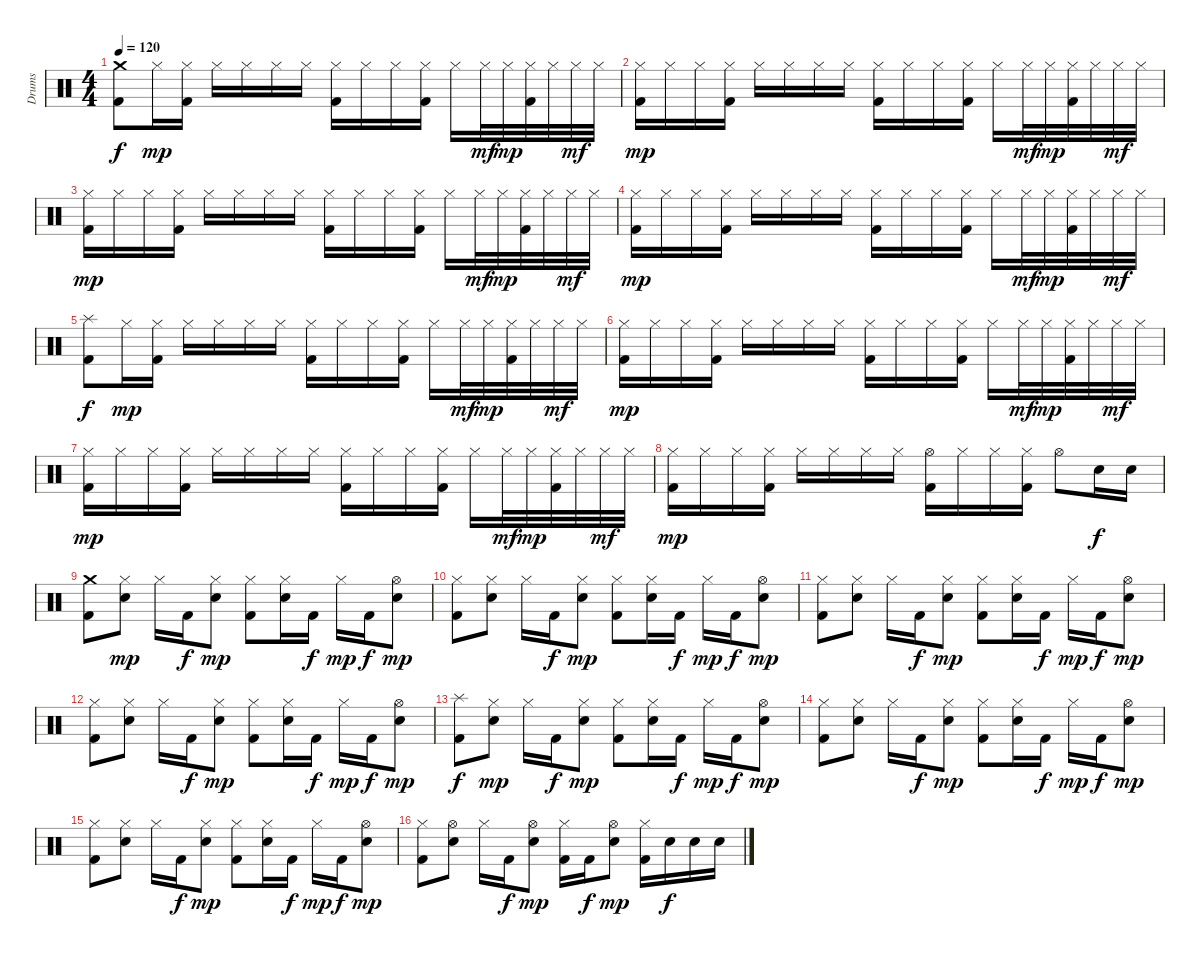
\track ("Drums" "Drums") {instrument percussion}
\staff {score}
\articulation defaults
\ts (4 4)
\tempo 120
\clef neutral
\ks c
("Crash medium (hit)" "Kick (hit) 2").8{dy f} "Hi-Hat (closed)".16{dy mp} ("Hi-Hat (closed)" "Kick (hit) 2").16 "Hi-Hat (closed)".16 "Hi-Hat (closed)".16 "Hi-Hat (closed)".16 "Hi-Hat (closed)".16 ("Hi-Hat (closed)" "Kick (hit) 2").16 "Hi-Hat (closed)".16 "Hi-Hat (closed)".16 ("Hi-Hat (closed)" "Kick (hit) 2").16 "Hi-Hat (closed)".16 "Hi-Hat (closed)".32{dy mf} "Hi-Hat (closed)".32{dy mp} ("Hi-Hat (closed)" "Kick (hit) 2").32 "Hi-Hat (closed)".32 "Hi-Hat (closed)".32{dy mf} "Hi-Hat (closed)".32 |
("Hi-Hat (closed)" "Kick (hit) 2").16{dy mp} "Hi-Hat (closed)".16 "Hi-Hat (closed)".16 ("Hi-Hat (closed)" "Kick (hit) 2").16 "Hi-Hat (closed)".16 "Hi-Hat (closed)".16 "Hi-Hat (closed)".16 "Hi-Hat (closed)".16 ("Hi-Hat (closed)" "Kick (hit) 2").16 "Hi-Hat (closed)".16 "Hi-Hat (closed)".16 ("Hi-Hat (closed)" "Kick (hit) 2").16 "Hi-Hat (closed)".16 "Hi-Hat (closed)".32{dy mf} "Hi-Hat (closed)".32{dy mp} ("Hi-Hat (closed)" "Kick (hit) 2").32 "Hi-Hat (closed)".32 "Hi-Hat (closed)".32{dy mf} "Hi-Hat (closed)".32 |
("Hi-Hat (closed)" "Kick (hit) 2").16{dy mp} "Hi-Hat (closed)".16 "Hi-Hat (closed)".16 ("Hi-Hat (closed)" "Kick (hit) 2").16 "Hi-Hat (closed)".16 "Hi-Hat (closed)".16 "Hi-Hat (closed)".16 "Hi-Hat (closed)".16 ("Hi-Hat (closed)" "Kick (hit) 2").16 "Hi-Hat (closed)".16 "Hi-Hat (closed)".16 ("Hi-Hat (closed)" "Kick (hit) 2").16 "Hi-Hat (closed)".16 "Hi-Hat (closed)".32{dy mf} "Hi-Hat (closed)".32{dy mp} ("Hi-Hat (closed)" "Kick (hit) 2").32 "Hi-Hat (closed)".32 "Hi-Hat (closed)".32{dy mf} "Hi-Hat (closed)".32 |
("Hi-Hat (closed)" "Kick (hit) 2").16{dy mp} "Hi-Hat (closed)".16 "Hi-Hat (closed)".16 ("Hi-Hat (closed)" "Kick (hit) 2").16 "Hi-Hat (closed)".16 "Hi-Hat (closed)".16 "Hi-Hat (closed)".16 "Hi-Hat (closed)".16 ("Hi-Hat (closed)" "Kick (hit) 2").16 "Hi-Hat (closed)".16 "Hi-Hat (closed)".16 ("Hi-Hat (closed)" "Kick (hit) 2").16 "Hi-Hat (closed)".16 "Hi-Hat (closed)".32{dy mf} "Hi-Hat (closed)".32{dy mp} ("Hi-Hat (closed)" "Kick (hit) 2").32 "Hi-Hat (closed)".32 "Hi-Hat (closed)".32{dy mf} "Hi-Hat (closed)".32 |
("Splash (hit)" "Kick (hit) 2").8{dy f} "Hi-Hat (closed)".16{dy mp} ("Hi-Hat (closed)" "Kick (hit) 2").16 "Hi-Hat (closed)".16 "Hi-Hat (closed)".16 "Hi-Hat (closed)".16 "Hi-Hat (closed)".16 ("Hi-Hat (closed)" "Kick (hit) 2").16 "Hi-Hat (closed)".16 "Hi-Hat (closed)".16 ("Hi-Hat (closed)" "Kick (hit) 2").16 "Hi-Hat (closed)".16 "Hi-Hat (closed)".32{dy mf} "Hi-Hat (closed)".32{dy mp} ("Hi-Hat (closed)" "Kick (hit) 2").32 "Hi-Hat (closed)".32 "Hi-Hat (closed)".32{dy mf} "Hi-Hat (closed)".32 |
("Hi-Hat (closed)" "Kick (hit) 2").16{dy mp} "Hi-Hat (closed)".16 "Hi-Hat (closed)".16 ("Hi-Hat (closed)" "Kick (hit) 2").16 "Hi-Hat (closed)".16 "Hi-Hat (closed)".16 "Hi-Hat (closed)".16 "Hi-Hat (closed)".16 ("Hi-Hat (closed)" "Kick (hit) 2").16 "Hi-Hat (closed)".16 "Hi-Hat (closed)".16 ("Hi-Hat (closed)" "Kick (hit) 2").16 "Hi-Hat (closed)".16 "Hi-Hat (closed)".32{dy mf} "Hi-Hat (closed)".32{dy mp} ("Hi-Hat (closed)" "Kick (hit) 2").32 "Hi-Hat (closed)".32 "Hi-Hat (closed)".32{dy mf} "Hi-Hat (closed)".32 |
("Hi-Hat (closed)" "Kick (hit) 2").16{dy mp} "Hi-Hat (closed)".16 "Hi-Hat (closed)".16 ("Hi-Hat (closed)" "Kick (hit) 2").16 "Hi-Hat (closed)".16 "Hi-Hat (closed)".16 "Hi-Hat (closed)".16 "Hi-Hat (closed)".16 ("Hi-Hat (closed)" "Kick (hit) 2").16 "Hi-Hat (closed)".16 "Hi-Hat (closed)".16 ("Hi-Hat (closed)" "Kick (hit) 2").16 "Hi-Hat (closed)".16 "Hi-Hat (closed)".32{dy mf} "Hi-Hat (closed)".32{dy mp} ("Hi-Hat (closed)" "Kick (hit) 2").32 "Hi-Hat (closed)".32 "Hi-Hat (closed)".32{dy mf} "Hi-Hat (closed)".32 |
("Hi-Hat (closed)" "Kick (hit) 2").16{dy mp} "Hi-Hat (closed)".16 "Hi-Hat (closed)".16 ("Hi-Hat (closed)" "Kick (hit) 2").16 "Hi-Hat (closed)".16 "Hi-Hat (closed)".16 "Hi-Hat (closed)".16 "Hi-Hat (closed)".16 ("Hi-Hat (open)" "Kick (hit) 2").16 "Hi-Hat (closed)".16 "Hi-Hat (closed)".16 ("Hi-Hat (closed)" "Kick (hit) 2").16 "Hi-Hat (open)".8 "Snare (hit) 2".16{dy f} "Snare (hit) 2".16 |
("Crash medium (hit)" "Kick (hit) 2").8 ("Hi-Hat (closed)" "Snare (hit) 2").8{dy mp} "Hi-Hat (closed)".16 "Kick (hit) 2".16{dy f} ("Hi-Hat (closed)" "Snare (hit) 2").8{dy mp} ("Hi-Hat (closed)" "Kick (hit) 2").8 ("Hi-Hat (closed)" "Snare (hit) 2").16 "Kick (hit) 2".16{dy f} "Hi-Hat (closed)".16{dy mp} "Kick (hit) 2".16{dy f} ("Hi-Hat (open)" "Snare (hit) 2").8{dy mp} |
("Hi-Hat (closed)" "Kick (hit) 2").8 ("Hi-Hat (closed)" "Snare (hit) 2").8 "Hi-Hat (closed)".16 "Kick (hit) 2".16{dy f} ("Hi-Hat (closed)" "Snare (hit) 2").8{dy mp} ("Hi-Hat (closed)" "Kick (hit) 2").8 ("Hi-Hat (closed)" "Snare (hit) 2").16 "Kick (hit) 2".16{dy f} "Hi-Hat (closed)".16{dy mp} "Kick (hit) 2".16{dy f} ("Hi-Hat (open)" "Snare (hit) 2").8{dy mp} |
("Hi-Hat (closed)" "Kick (hit) 2").8 ("Hi-Hat (closed)" "Snare (hit) 2").8 "Hi-Hat (closed)".16 "Kick (hit) 2".16{dy f} ("Hi-Hat (closed)" "Snare (hit) 2").8{dy mp} ("Hi-Hat (closed)" "Kick (hit) 2").8 ("Hi-Hat (closed)" "Snare (hit) 2").16 "Kick (hit) 2".16{dy f} "Hi-Hat (closed)".16{dy mp} "Kick (hit) 2".16{dy f} ("Hi-Hat (open)" "Snare (hit) 2").8{dy mp} |
("Hi-Hat (closed)" "Kick (hit) 2").8 ("Hi-Hat (closed)" "Snare (hit) 2").8 "Hi-Hat (closed)".16 "Kick (hit) 2".16{dy f} ("Hi-Hat (closed)" "Snare (hit) 2").8{dy mp} ("Hi-Hat (closed)" "Kick (hit) 2").8 ("Hi-Hat (closed)" "Snare (hit) 2").16 "Kick (hit) 2".16{dy f} "Hi-Hat (closed)".16{dy mp} "Kick (hit) 2".16{dy f} ("Hi-Hat (open)" "Snare (hit) 2").8{dy mp} |
("Splash (hit)" "Kick (hit) 2").8{dy f} ("Hi-Hat (closed)" "Snare (hit) 2").8{dy mp} "Hi-Hat (closed)".16 "Kick (hit) 2".16{dy f} ("Hi-Hat (closed)" "Snare (hit) 2").8{dy mp} ("Hi-Hat (closed)" "Kick (hit) 2").8 ("Hi-Hat (closed)" "Snare (hit) 2").16 "Kick (hit) 2".16{dy f} "Hi-Hat (closed)".16{dy mp} "Kick (hit) 2".16{dy f} ("Hi-Hat (open)" "Snare (hit) 2").8{dy mp} |
("Hi-Hat (closed)" "Kick (hit) 2").8 ("Hi-Hat (closed)" "Snare (hit) 2").8 "Hi-Hat (closed)".16 "Kick (hit) 2".16{dy f} ("Hi-Hat (closed)" "Snare (hit) 2").8{dy mp} ("Hi-Hat (closed)" "Kick (hit) 2").8 ("Hi-Hat (closed)" "Snare (hit) 2").16 "Kick (hit) 2".16{dy f} "Hi-Hat (closed)".16{dy mp} "Kick (hit) 2".16{dy f} ("Hi-Hat (open)" "Snare (hit) 2").8{dy mp} |
("Hi-Hat (closed)" "Kick (hit) 2").8 ("Hi-Hat (closed)" "Snare (hit) 2").8 "Hi-Hat (closed)".16 "Kick (hit) 2".16{dy f} ("Hi-Hat (closed)" "Snare (hit) 2").8{dy mp} ("Hi-Hat (closed)" "Kick (hit) 2").8 ("Hi-Hat (closed)" "Snare (hit) 2").16 "Kick (hit) 2".16{dy f} "Hi-Hat (closed)".16{dy mp} "Kick (hit) 2".16{dy f} ("Hi-Hat (open)" "Snare (hit) 2").8{dy mp} |
("Hi-Hat (closed)" "Kick (hit) 2").8 ("Hi-Hat (open)" "Snare (hit) 2").8 "Hi-Hat (closed)".16 "Kick (hit) 2".16{dy f} ("Hi-Hat (open)" "Snare (hit) 2").8{dy mp} ("Hi-Hat (closed)" "Kick (hit) 2").16 "Kick (hit) 2".16{dy f} ("Hi-Hat (open)" "Snare (hit) 2").8{dy mp} ("Hi-Hat (closed)" "Kick (hit) 2").16 "Snare (hit) 2".16{dy f} "Snare (hit) 2".16 "Snare (hit) 2".16
